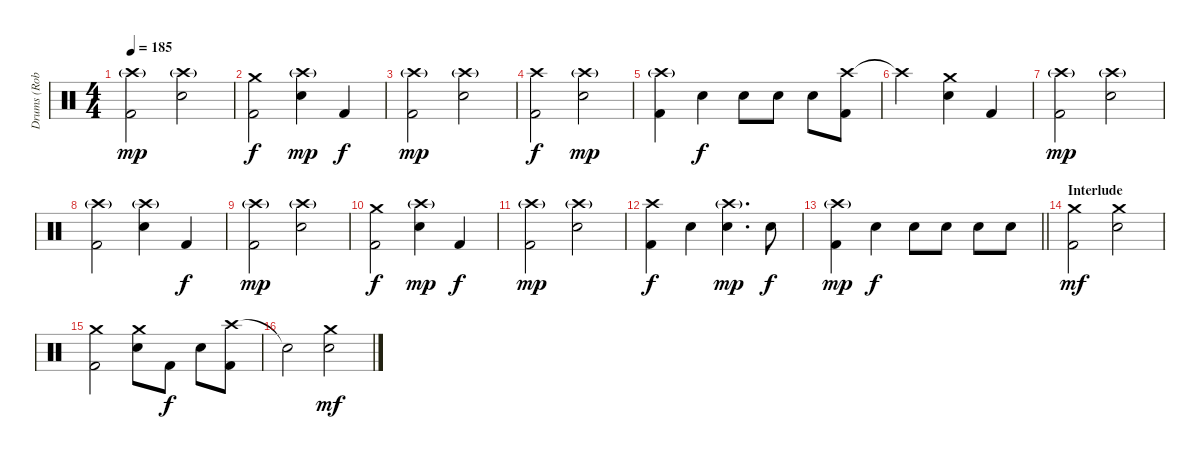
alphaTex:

\track ("Drums (Robert Ortiz)" "Drums (Rob") {instrument percussion}
\staff {score}
\articulation defaults
\ts (4 4)
\tempo 185
\clef neutral
\ks c
("Crash high (hit)"{g} "Kick (hit) 2").2{dy mp} ("Crash high (hit)"{g} "Electric Snare (hit)").2 |
("Crash medium (hit)" "Kick (hit) 2").2{dy f} ("Crash high (hit)"{g} "Electric Snare (hit)").4{dy mp} "Kick (hit) 2".4{dy f} |
("Crash high (hit)"{g} "Kick (hit) 2").2{dy mp} ("Crash high (hit)"{g} "Electric Snare (hit)").2 |
("Crash high (hit)" "Kick (hit) 2").2{dy f} ("Crash high (hit)"{g} "Electric Snare (hit)").2{dy mp} |
("Crash high (hit)"{g} "Kick (hit) 2").4 "Electric Snare (hit)".4{dy f} "Electric Snare (hit)".8 "Electric Snare (hit)".8 "Electric Snare (hit)".8 ("Crash high (hit)" "Kick (hit) 2").8 |
"Crash high (hit)"{t}.2 ("Crash medium (hit)" "Electric Snare (hit)").4 "Kick (hit) 2".4 |
("Crash high (hit)"{g} "Kick (hit) 2").2{dy mp} ("Crash high (hit)"{g} "Electric Snare (hit)").2 |
("Crash high (hit)"{g} "Kick (hit) 2").2 ("Crash high (hit)"{g} "Electric Snare (hit)").4 "Kick (hit) 2".4{dy f} |
("Crash high (hit)"{g} "Kick (hit) 2").2{dy mp} ("Crash high (hit)"{g} "Electric Snare (hit)").2 |
("Crash medium (hit)" "Kick (hit) 2").2{dy f} ("Crash high (hit)"{g} "Electric Snare (hit)").4{dy mp} "Kick (hit) 2".4{dy f} |
("Crash high (hit)"{g} "Kick (hit) 2").2{dy mp} ("Crash high (hit)"{g} "Electric Snare (hit)").2 |
("Crash high (hit)" "Kick (hit) 2").4{dy f} "Electric Snare (hit)".4 ("Crash high (hit)"{g} "Electric Snare (hit)").4{d dy mp} "Electric Snare (hit)".8{dy f} |
\barLineRight lightlight
("Crash high (hit)"{g} "Kick (hit) 2").4{dy mp} "Electric Snare (hit)".4{dy f} "Electric Snare (hit)".8 "Electric Snare (hit)".8 "Electric Snare (hit)".8 "Electric Snare (hit)".8 |
\section ("" "Interlude")
("Crash medium (hit)" "Kick (hit) 2").2{dy mf} ("Crash medium (hit)" "Electric Snare (hit)").2 |
("Crash medium (hit)" "Kick (hit) 2").2 ("Crash medium (hit)" "Electric Snare (hit)").8 "Kick (hit) 2".8{dy f} "Electric Snare (hit)".8 ("Crash high (hit)" "Kick (hit) 2").8 |
"Snare (hit)"{t}.2 ("Crash medium (hit)" "Electric Snare (hit)").2{dy mf}
